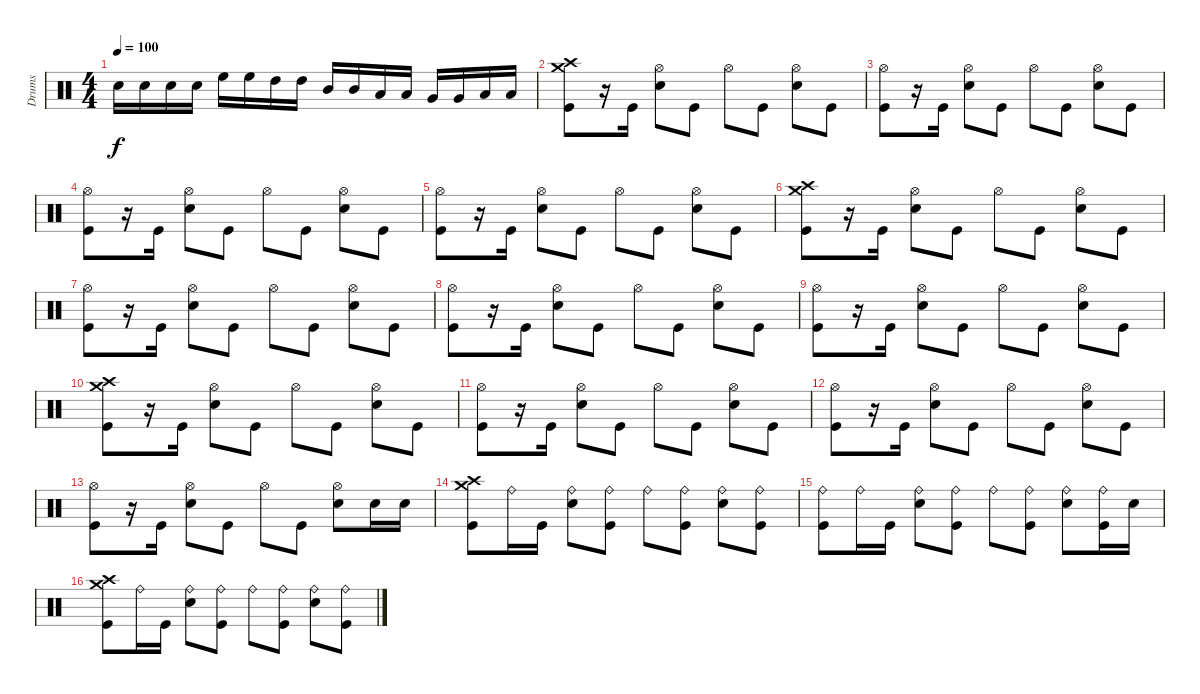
\track ("Drums" "Drums") {instrument percussion}
\staff {score}
\articulation defaults
\ts (4 4)
\tempo 100
\clef neutral
\ks c "Electric Snare (hit)".16{dy f} "Electric Snare (hit)".16 "Electric Snare (hit)".16 "Electric Snare (hit)".16 "High Floor Tom (hit)".16 "High Floor Tom (hit)".16 "High Tom (hit)".16 "High Tom (hit)".16 "Mid Tom (hit)".16 "Mid Tom (hit)".16 "Low Tom (hit)".16 "Low Tom (hit)".16 "Very Low Tom (hit)".16 "Very Low Tom (hit)".16 "Low Floor Tom (hit)".16 "Low Floor Tom (hit)".16
|
("Kick (hit)" "Crash medium (hit)" "Crash high (hit)").8 r.16 "Kick (hit)".16 ("Electric Snare (hit)" "Hi-Hat (open)").8 "Kick (hit)".8 "Hi-Hat (open)".8 "Kick (hit)".8 ("Electric Snare (hit)" "Hi-Hat (open)").8 "Kick (hit)".8 |
("Kick (hit)" "Hi-Hat (open)").8 r.16 "Kick (hit)".16 ("Electric Snare (hit)" "Hi-Hat (open)").8 "Kick (hit)".8 "Hi-Hat (open)".8 "Kick (hit)".8 ("Electric Snare (hit)" "Hi-Hat (open)").8 "Kick (hit)".8 |
("Kick (hit)" "Hi-Hat (open)").8 r.16 "Kick (hit)".16 ("Electric Snare (hit)" "Hi-Hat (open)").8 "Kick (hit)".8 "Hi-Hat (open)".8 "Kick (hit)".8 ("Electric Snare (hit)" "Hi-Hat (open)").8 "Kick (hit)".8 |
("Kick (hit)" "Hi-Hat (open)").8 r.16 "Kick (hit)".16 ("Electric Snare (hit)" "Hi-Hat (open)").8 "Kick (hit)".8 "Hi-Hat (open)".8 "Kick (hit)".8 ("Electric Snare (hit)" "Hi-Hat (open)").8 "Kick (hit)".8 |
("Kick (hit)" "Crash medium (hit)" "Crash high (hit)").8 r.16 "Kick (hit)".16 ("Electric Snare (hit)" "Hi-Hat (open)").8 "Kick (hit)".8 "Hi-Hat (open)".8 "Kick (hit)".8 ("Electric Snare (hit)" "Hi-Hat (open)").8 "Kick (hit)".8 |
("Kick (hit)" "Hi-Hat (open)").8 r.16 "Kick (hit)".16 ("Electric Snare (hit)" "Hi-Hat (open)").8 "Kick (hit)".8 "Hi-Hat (open)".8 "Kick (hit)".8 ("Electric Snare (hit)" "Hi-Hat (open)").8 "Kick (hit)".8 |
("Kick (hit)" "Hi-Hat (open)").8 r.16 "Kick (hit)".16 ("Electric Snare (hit)" "Hi-Hat (open)").8 "Kick (hit)".8 "Hi-Hat (open)".8 "Kick (hit)".8 ("Electric Snare (hit)" "Hi-Hat (open)").8 "Kick (hit)".8 |
("Kick (hit)" "Hi-Hat (open)").8 r.16 "Kick (hit)".16 ("Electric Snare (hit)" "Hi-Hat (open)").8 "Kick (hit)".8 "Hi-Hat (open)".8 "Kick (hit)".8 ("Electric Snare (hit)" "Hi-Hat (open)").8 "Kick (hit)".8 |
("Kick (hit)" "Crash medium (hit)" "Crash high (hit)").8 r.16 "Kick (hit)".16 ("Electric Snare (hit)" "Hi-Hat (open)").8 "Kick (hit)".8 "Hi-Hat (open)".8 "Kick (hit)".8 ("Electric Snare (hit)" "Hi-Hat (open)").8 "Kick (hit)".8 |
("Kick (hit)" "Hi-Hat (open)").8 r.16 "Kick (hit)".16 ("Electric Snare (hit)" "Hi-Hat (open)").8 "Kick (hit)".8 "Hi-Hat (open)".8 "Kick (hit)".8 ("Electric Snare (hit)" "Hi-Hat (open)").8 "Kick (hit)".8 |
("Kick (hit)" "Hi-Hat (open)").8 r.16 "Kick (hit)".16 ("Electric Snare (hit)" "Hi-Hat (open)").8 "Kick (hit)".8 "Hi-Hat (open)".8 "Kick (hit)".8 ("Electric Snare (hit)" "Hi-Hat (open)").8 "Kick (hit)".8 |
("Kick (hit)" "Hi-Hat (open)").8 r.16 "Kick (hit)".16 ("Electric Snare (hit)" "Hi-Hat (open)").8 "Kick (hit)".8 "Hi-Hat (open)".8 "Kick (hit)".8 ("Electric Snare (hit)" "Hi-Hat (open)").8 "Electric Snare (hit)".16 "Electric Snare (hit)".16 |
("Kick (hit)" "Crash medium (hit)" "Crash high (hit)").8 "Ride (bell)".16 "Kick (hit)".16 ("Electric Snare (hit)" "Ride (bell)").8 ("Kick (hit)" "Ride (bell)").8 "Ride (bell)".8 ("Kick (hit)" "Ride (bell)").8 ("Electric Snare (hit)" "Ride (bell)").8 ("Kick (hit)" "Ride (bell)").8 |
("Kick (hit)" "Ride (bell)").8 "Ride (bell)".16 "Kick (hit)".16 ("Electric Snare (hit)" "Ride (bell)").8 ("Kick (hit)" "Ride (bell)").8 "Ride (bell)".8 ("Kick (hit)" "Ride (bell)").8 ("Electric Snare (hit)" "Ride (bell)").8 ("Kick (hit)" "Ride (bell)").16 "Electric Snare (hit)".16 |
("Kick (hit)" "Crash medium (hit)" "Crash high (hit)").8 "Ride (bell)".16 "Kick (hit)".16 ("Electric Snare (hit)" "Ride (bell)").8 ("Kick (hit)" "Ride (bell)").8 "Ride (bell)".8 ("Kick (hit)" "Ride (bell)").8 ("Electric Snare (hit)" "Ride (bell)").8 ("Kick (hit)" "Ride (bell)").8
